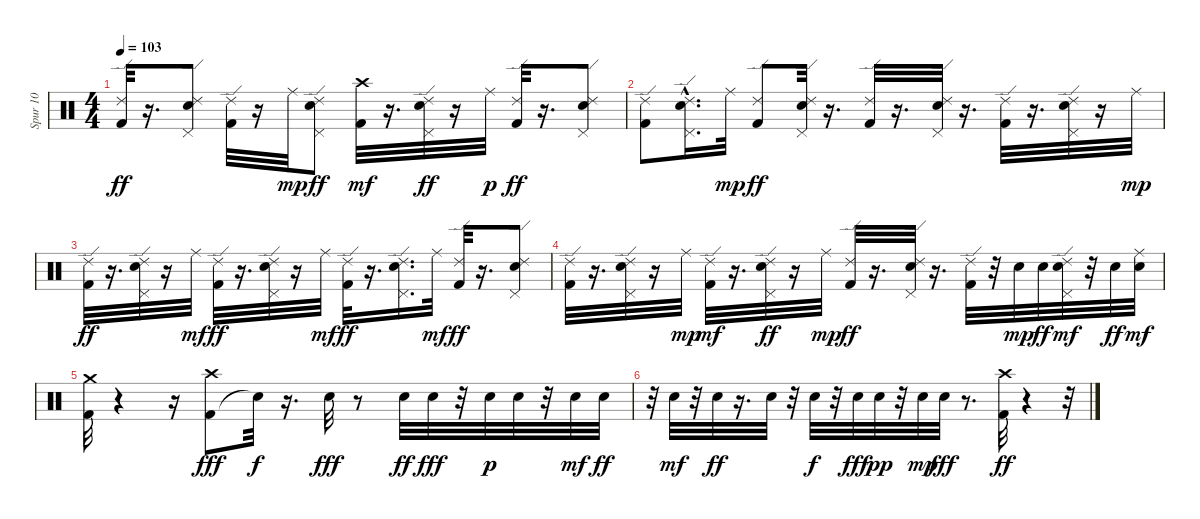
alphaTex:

\track ("Spur 10" "Spur 10") {instrument percussion}
\staff {score}
\articulation defaults
\ts (4 4)
\tempo 103
\clef neutral
\ks c
("Kick (hit) 2" "Ride (edge) 2").32{dy ff} r.16{d} ("Pedal Hi-Hat (hit)" "Ride (edge) 2" "Electric Snare (hit)").8 ("Kick (hit) 2" "Ride (edge) 2").32 r.16 "Ride (middle)".32{dy mp} ("Pedal Hi-Hat (hit)" "Ride (edge) 2" "Electric Snare (hit)").8{dy ff} ("Kick (hit) 2" "Crash high (hit)").32{dy mf} r.16{d} ("Pedal Hi-Hat (hit)" "Ride (edge) 2" "Electric Snare (hit)").32{dy ff} r.16 "Ride (middle)".32{dy p} ("Kick (hit) 2" "Ride (edge) 2").32{dy ff} r.16{d} ("Pedal Hi-Hat (hit)" "Ride (edge) 2" "Electric Snare (hit)").8 |
("Kick (hit) 2" "Ride (edge) 2").8 ("Pedal Hi-Hat (hit)"{hac} "Ride (edge) 2" "Electric Snare (hit)").16{d} "Ride (middle)".32{dy mp} ("Kick (hit) 2" "Ride (edge) 2").8{dy ff} ("Pedal Hi-Hat (hit)" "Ride (edge) 2" "Electric Snare (hit)").32 r.16{d} ("Kick (hit) 2" "Ride (edge) 2").32 r.16{d} ("Pedal Hi-Hat (hit)" "Ride (edge) 2" "Electric Snare (hit)").32 r.16{d} ("Kick (hit) 2" "Ride (edge) 2").32 r.16{d} ("Pedal Hi-Hat (hit)" "Ride (edge) 2" "Electric Snare (hit)").32 r.16 "Ride (middle)".32{dy mp} |
("Kick (hit) 2" "Ride (edge) 2").32{dy ff} r.16{d} ("Pedal Hi-Hat (hit)" "Ride (edge) 2" "Electric Snare (hit)").32 r.16 "Ride (middle)".32{dy mf} ("Kick (hit) 2" "Ride (edge) 2").32{dy ff} r.16{d} ("Pedal Hi-Hat (hit)" "Ride (edge) 2" "Electric Snare (hit)").32 r.16 "Ride (middle)".32{dy mf} ("Kick (hit) 2" "Ride (edge) 2").32{dy ff} r.16{d} ("Pedal Hi-Hat (hit)" "Ride (edge) 2" "Electric Snare (hit)").16{d} "Ride (middle)".32{dy mf} ("Kick (hit) 2" "Ride (edge) 2").32{dy ff} r.16{d} ("Pedal Hi-Hat (hit)" "Ride (edge) 2" "Electric Snare (hit)").8 |
("Kick (hit) 2" "Ride (edge) 2").32 r.16{d} ("Pedal Hi-Hat (hit)" "Ride (edge) 2" "Electric Snare (hit)").32 r.16 "Ride (middle)".32{dy mp} ("Kick (hit) 2" "Ride (edge) 2").32{dy mf} r.16{d} ("Pedal Hi-Hat (hit)" "Ride (edge) 2" "Electric Snare (hit)").32{dy ff} r.16 "Ride (middle)".32{dy mp} ("Kick (hit) 2" "Ride (edge) 2").32{dy ff} r.16{d} ("Pedal Hi-Hat (hit)" "Ride (edge) 2" "Electric Snare (hit)").32 r.16{d} ("Kick (hit) 2" "Ride (edge) 2").32 r.32 "Electric Snare (hit)".32{dy mp} "Electric Snare (hit)".32{dy ff} ("Pedal Hi-Hat (hit)" "Ride (edge) 2" "Electric Snare (hit)").32{dy mf} r.32 "Electric Snare (hit)".32{dy ff} ("Electric Snare (hit)" "Ride (middle)").32{dy mf} |
("Kick (hit) 2" "Crash medium (hit)").32 r.4 r.16 ("Kick (hit) 2" "Crash high (hit)").8{dy fff} "Snare (hit)"{t}.32{dy f} r.16{d} "Electric Snare (hit)".32{dy fff} r.8 "Electric Snare (hit)".32{dy ff} "Electric Snare (hit)".32{dy fff} r.32 "Electric Snare (hit)".32{dy p} "Electric Snare (hit)".32 r.32 "Electric Snare (hit)".32{dy mf} "Electric Snare (hit)".32{dy ff} |
r.32 "Electric Snare (hit)".32{dy mf} r.32 "Electric Snare (hit)".32{dy ff} r.16{d} "Electric Snare (hit)".32 r.32 "Electric Snare (hit)".32{dy f} r.32 "Electric Snare (hit)".32{dy fff} "Electric Snare (hit)".32{dy pp} r.32 "Electric Snare (hit)".32{dy mp} "Electric Snare (hit)".32{dy fff} r.8{d} ("Kick (hit) 2" "Crash high (hit)").32{dy ff} r.4 r.32
